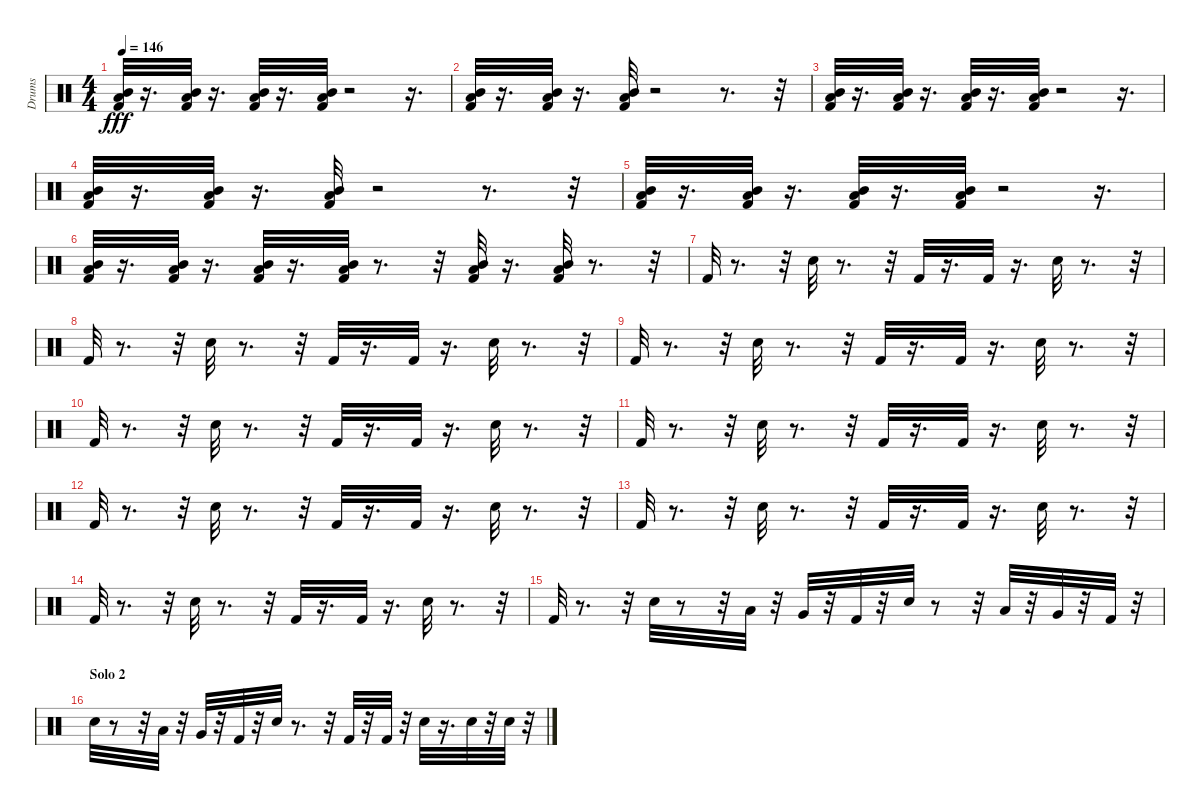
\track ("Drums" "Drums") {instrument percussion}
\staff {score}
\articulation defaults
\ts (4 4)
\tempo 146
\clef neutral
\ks c
("Kick (hit) 2" "Low Floor Tom (hit)" "Mid Tom (hit)").32{dy fff} r.16{d} ("Kick (hit) 2" "Low Floor Tom (hit)" "Mid Tom (hit)").32 r.16{d} ("Kick (hit) 2" "Low Floor Tom (hit)" "Mid Tom (hit)").32 r.16{d} ("Kick (hit) 2" "Low Floor Tom (hit)" "Mid Tom (hit)").32 r.2 r.16{d} |
("Kick (hit) 2" "Low Floor Tom (hit)" "Mid Tom (hit)").32 r.16{d} ("Kick (hit) 2" "Low Floor Tom (hit)" "Mid Tom (hit)").32 r.16{d} ("Kick (hit) 2" "Low Floor Tom (hit)" "Mid Tom (hit)").32 r.2 r.8{d} r.32 |
("Kick (hit) 2" "Low Floor Tom (hit)" "Mid Tom (hit)").32 r.16{d} ("Kick (hit) 2" "Low Floor Tom (hit)" "Mid Tom (hit)").32 r.16{d} ("Kick (hit) 2" "Low Floor Tom (hit)" "Mid Tom (hit)").32 r.16{d} ("Kick (hit) 2" "Low Floor Tom (hit)" "Mid Tom (hit)").32 r.2 r.16{d} |
("Kick (hit) 2" "Low Floor Tom (hit)" "Mid Tom (hit)").32 r.16{d} ("Kick (hit) 2" "Low Floor Tom (hit)" "Mid Tom (hit)").32 r.16{d} ("Kick (hit) 2" "Low Floor Tom (hit)" "Mid Tom (hit)").32 r.2 r.8{d} r.32 |
("Kick (hit) 2" "Low Floor Tom (hit)" "Mid Tom (hit)").32 r.16{d} ("Kick (hit) 2" "Low Floor Tom (hit)" "Mid Tom (hit)").32 r.16{d} ("Kick (hit) 2" "Low Floor Tom (hit)" "Mid Tom (hit)").32 r.16{d} ("Kick (hit) 2" "Low Floor Tom (hit)" "Mid Tom (hit)").32 r.2 r.16{d} |
("Kick (hit) 2" "Low Floor Tom (hit)" "Mid Tom (hit)").32 r.16{d} ("Kick (hit) 2" "Low Floor Tom (hit)" "Mid Tom (hit)").32 r.16{d} ("Kick (hit) 2" "Low Floor Tom (hit)" "Mid Tom (hit)").32 r.16{d} ("Kick (hit) 2" "Low Floor Tom (hit)" "Mid Tom (hit)").32 r.8{d} r.32 ("Kick (hit) 2" "Low Floor Tom (hit)" "Mid Tom (hit)").32 r.16{d} ("Kick (hit) 2" "Low Floor Tom (hit)" "Mid Tom (hit)").32 r.8{d} r.32 |
"Kick (hit) 2".32 r.8{d} r.32 "Snare (hit) 2".32 r.8{d} r.32 "Kick (hit) 2".32 r.16{d} "Kick (hit) 2".32 r.16{d} "Snare (hit) 2".32 r.8{d} r.32 |
"Kick (hit) 2".32 r.8{d} r.32 "Snare (hit) 2".32 r.8{d} r.32 "Kick (hit) 2".32 r.16{d} "Kick (hit) 2".32 r.16{d} "Snare (hit) 2".32 r.8{d} r.32 |
"Kick (hit) 2".32 r.8{d} r.32 "Snare (hit) 2".32 r.8{d} r.32 "Kick (hit) 2".32 r.16{d} "Kick (hit) 2".32 r.16{d} "Snare (hit) 2".32 r.8{d} r.32 |
"Kick (hit) 2".32 r.8{d} r.32 "Snare (hit) 2".32 r.8{d} r.32 "Kick (hit) 2".32 r.16{d} "Kick (hit) 2".32 r.16{d} "Snare (hit) 2".32 r.8{d} r.32 |
"Kick (hit) 2".32 r.8{d} r.32 "Snare (hit) 2".32 r.8{d} r.32 "Kick (hit) 2".32 r.16{d} "Kick (hit) 2".32 r.16{d} "Snare (hit) 2".32 r.8{d} r.32 |
"Kick (hit) 2".32 r.8{d} r.32 "Snare (hit) 2".32 r.8{d} r.32 "Kick (hit) 2".32 r.16{d} "Kick (hit) 2".32 r.16{d} "Snare (hit) 2".32 r.8{d} r.32 |
"Kick (hit) 2".32 r.8{d} r.32 "Snare (hit) 2".32 r.8{d} r.32 "Kick (hit) 2".32 r.16{d} "Kick (hit) 2".32 r.16{d} "Snare (hit) 2".32 r.8{d} r.32 |
"Kick (hit) 2".32 r.8{d} r.32 "Snare (hit) 2".32 r.8{d} r.32 "Kick (hit) 2".32 r.16{d} "Kick (hit) 2".32 r.16{d} "Snare (hit) 2".32 r.8{d} r.32 |
"Kick (hit) 2".32 r.8{d} r.32 "Snare (hit) 2".32 r.8 r.32 "Low Tom (hit)".32 r.32 "Very Low Tom (hit)".32 r.32 "Kick (hit) 2".32 r.32 "Snare (hit) 2".32 r.8 r.32 "Low Tom (hit)".32 r.32 "Very Low Tom (hit)".32 r.32 "Kick (hit) 2".32 r.32 |
\section ("" "Solo 2")
"Snare (hit) 2".32 r.8 r.32 "Low Tom (hit)".32 r.32 "Very Low Tom (hit)".32 r.32 "Kick (hit) 2".32 r.32 "Snare (hit) 2".32 r.8{d} r.32 "Kick (hit) 2".32 r.32 "Kick (hit) 2".32 r.32 "Snare (hit) 2".32 r.16{d} "Snare (hit) 2".32 r.32 "Snare (hit) 2".32 r.32
